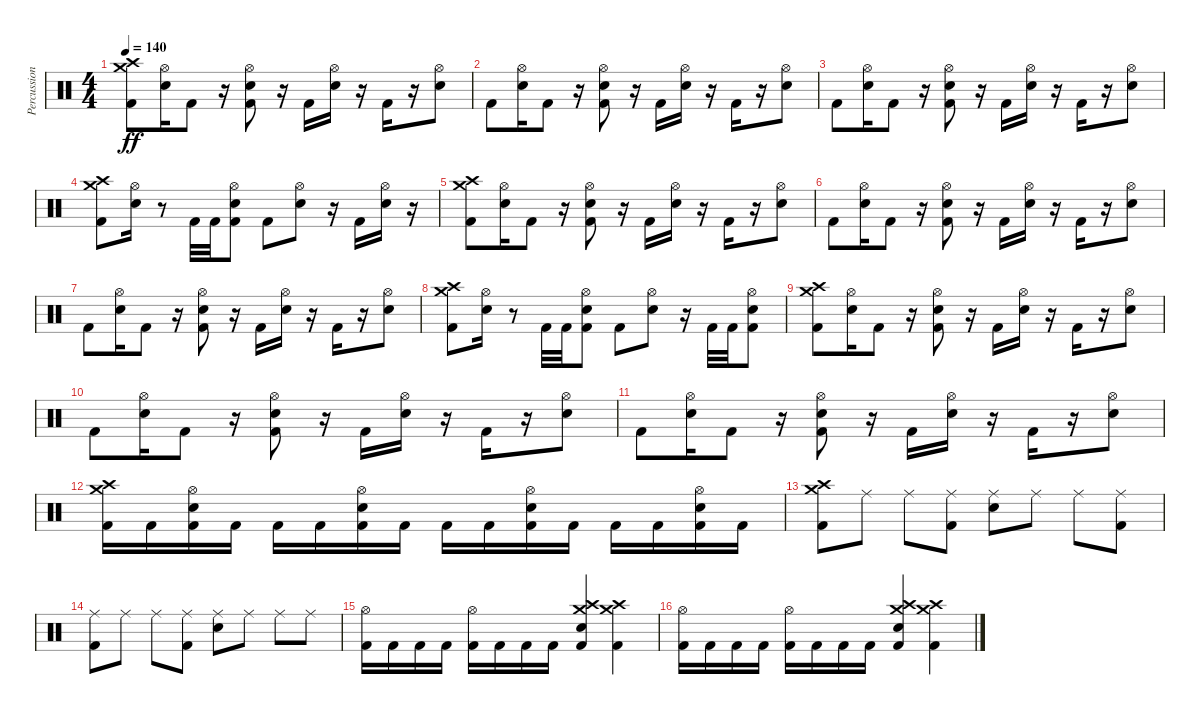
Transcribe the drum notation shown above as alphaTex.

\track ("Percussion" "Percussion") {instrument percussion}
\staff {score}
\articulation defaults
\ts (4 4)
\tempo 140
\clef neutral
\ks c
("Kick (hit) 2" "Crash medium (hit)" "Crash high (hit)").8{dy ff} ("Electric Snare (hit)" "Hi-Hat (open)").16 "Kick (hit) 2".8 r.16 ("Kick (hit) 2" "Electric Snare (hit)" "Hi-Hat (open)").8 r.16 "Kick (hit) 2".16 ("Electric Snare (hit)" "Hi-Hat (open)").16 r.16 "Kick (hit) 2".16 r.16 ("Electric Snare (hit)" "Hi-Hat (open)").8 |
"Kick (hit) 2".8 ("Electric Snare (hit)" "Hi-Hat (open)").16 "Kick (hit) 2".8 r.16 ("Kick (hit) 2" "Electric Snare (hit)" "Hi-Hat (open)").8 r.16 "Kick (hit) 2".16 ("Electric Snare (hit)" "Hi-Hat (open)").16 r.16 "Kick (hit) 2".16 r.16 ("Electric Snare (hit)" "Hi-Hat (open)").8 |
"Kick (hit) 2".8 ("Electric Snare (hit)" "Hi-Hat (open)").16 "Kick (hit) 2".8 r.16 ("Kick (hit) 2" "Electric Snare (hit)" "Hi-Hat (open)").8 r.16 "Kick (hit) 2".16 ("Electric Snare (hit)" "Hi-Hat (open)").16 r.16 "Kick (hit) 2".16 r.16 ("Electric Snare (hit)" "Hi-Hat (open)").8 |
("Kick (hit) 2" "Crash medium (hit)" "Crash high (hit)").8 ("Electric Snare (hit)" "Hi-Hat (open)").16 r.8 "Kick (hit) 2".32 "Kick (hit) 2".32 ("Kick (hit) 2" "Electric Snare (hit)" "Hi-Hat (open)").8 "Kick (hit) 2".8 ("Electric Snare (hit)" "Hi-Hat (open)").8 r.16 "Kick (hit) 2".16 ("Electric Snare (hit)" "Hi-Hat (open)").16 r.16 |
("Kick (hit) 2" "Crash medium (hit)" "Crash high (hit)").8 ("Electric Snare (hit)" "Hi-Hat (open)").16 "Kick (hit) 2".8 r.16 ("Kick (hit) 2" "Electric Snare (hit)" "Hi-Hat (open)").8 r.16 "Kick (hit) 2".16 ("Electric Snare (hit)" "Hi-Hat (open)").16 r.16 "Kick (hit) 2".16 r.16 ("Electric Snare (hit)" "Hi-Hat (open)").8 |
"Kick (hit) 2".8 ("Electric Snare (hit)" "Hi-Hat (open)").16 "Kick (hit) 2".8 r.16 ("Kick (hit) 2" "Electric Snare (hit)" "Hi-Hat (open)").8 r.16 "Kick (hit) 2".16 ("Electric Snare (hit)" "Hi-Hat (open)").16 r.16 "Kick (hit) 2".16 r.16 ("Electric Snare (hit)" "Hi-Hat (open)").8 |
"Kick (hit) 2".8 ("Electric Snare (hit)" "Hi-Hat (open)").16 "Kick (hit) 2".8 r.16 ("Kick (hit) 2" "Electric Snare (hit)" "Hi-Hat (open)").8 r.16 "Kick (hit) 2".16 ("Electric Snare (hit)" "Hi-Hat (open)").16 r.16 "Kick (hit) 2".16 r.16 ("Electric Snare (hit)" "Hi-Hat (open)").8 |
("Kick (hit) 2" "Crash medium (hit)" "Crash high (hit)").8 ("Electric Snare (hit)" "Hi-Hat (open)").16 r.8 "Kick (hit) 2".32 "Kick (hit) 2".32 ("Kick (hit) 2" "Electric Snare (hit)" "Hi-Hat (open)").8 "Kick (hit) 2".8 ("Electric Snare (hit)" "Hi-Hat (open)").8 r.16 "Kick (hit) 2".32 "Kick (hit) 2".32 ("Kick (hit) 2" "Electric Snare (hit)" "Hi-Hat (open)").8 |
("Kick (hit) 2" "Crash medium (hit)" "Crash high (hit)").8 ("Electric Snare (hit)" "Hi-Hat (open)").16 "Kick (hit) 2".8 r.16 ("Kick (hit) 2" "Electric Snare (hit)" "Hi-Hat (open)").8 r.16 "Kick (hit) 2".16 ("Electric Snare (hit)" "Hi-Hat (open)").16 r.16 "Kick (hit) 2".16 r.16 ("Electric Snare (hit)" "Hi-Hat (open)").8 |
"Kick (hit) 2".8 ("Electric Snare (hit)" "Hi-Hat (open)").16 "Kick (hit) 2".8 r.16 ("Kick (hit) 2" "Electric Snare (hit)" "Hi-Hat (open)").8 r.16 "Kick (hit) 2".16 ("Electric Snare (hit)" "Hi-Hat (open)").16 r.16 "Kick (hit) 2".16 r.16 ("Electric Snare (hit)" "Hi-Hat (open)").8 |
"Kick (hit) 2".8 ("Electric Snare (hit)" "Hi-Hat (open)").16 "Kick (hit) 2".8 r.16 ("Kick (hit) 2" "Electric Snare (hit)" "Hi-Hat (open)").8 r.16 "Kick (hit) 2".16 ("Electric Snare (hit)" "Hi-Hat (open)").16 r.16 "Kick (hit) 2".16 r.16 ("Electric Snare (hit)" "Hi-Hat (open)").8 |
("Kick (hit) 2" "Crash medium (hit)" "Crash high (hit)").16 "Kick (hit) 2".16 ("Kick (hit) 2" "Electric Snare (hit)" "Hi-Hat (open)").16 "Kick (hit) 2".16 "Kick (hit) 2".16 "Kick (hit) 2".16 ("Kick (hit) 2" "Electric Snare (hit)" "Hi-Hat (open)").16 "Kick (hit) 2".16 "Kick (hit) 2".16 "Kick (hit) 2".16 ("Kick (hit) 2" "Electric Snare (hit)" "Hi-Hat (open)").16 "Kick (hit) 2".16 "Kick (hit) 2".16 "Kick (hit) 2".16 ("Kick (hit) 2" "Electric Snare (hit)" "Hi-Hat (open)").16 "Kick (hit) 2".16 |
("Kick (hit) 2" "Crash medium (hit)" "Crash high (hit)").8 "Ride (middle)".8 "Ride (middle)".8 ("Kick (hit) 2" "Ride (middle)").8 ("Electric Snare (hit)" "Ride (middle)").8 "Ride (middle)".8 "Ride (middle)".8 ("Kick (hit) 2" "Ride (middle)").8 |
("Kick (hit) 2" "Ride (middle)").8 "Ride (middle)".8 "Ride (middle)".8 ("Kick (hit) 2" "Ride (middle)").8 ("Electric Snare (hit)" "Ride (middle)").8 "Ride (middle)".8 "Ride (middle)".8 "Ride (middle)".8 |
("Kick (hit) 2" "Hi-Hat (open)").16 "Kick (hit) 2".16 "Kick (hit) 2".16 "Kick (hit) 2".16 ("Kick (hit) 2" "Hi-Hat (open)").16 "Kick (hit) 2".16 "Kick (hit) 2".16 "Kick (hit) 2".16 ("Kick (hit) 2" "Electric Snare (hit)" "Crash medium (hit)" "Crash high (hit)").4 ("Kick (hit) 2" "Crash medium (hit)" "Crash high (hit)").4 |
("Kick (hit) 2" "Hi-Hat (open)").16 "Kick (hit) 2".16 "Kick (hit) 2".16 "Kick (hit) 2".16 ("Kick (hit) 2" "Hi-Hat (open)").16 "Kick (hit) 2".16 "Kick (hit) 2".16 "Kick (hit) 2".16 ("Kick (hit) 2" "Electric Snare (hit)" "Crash medium (hit)" "Crash high (hit)").4 ("Kick (hit) 2" "Crash medium (hit)" "Crash high (hit)").4
